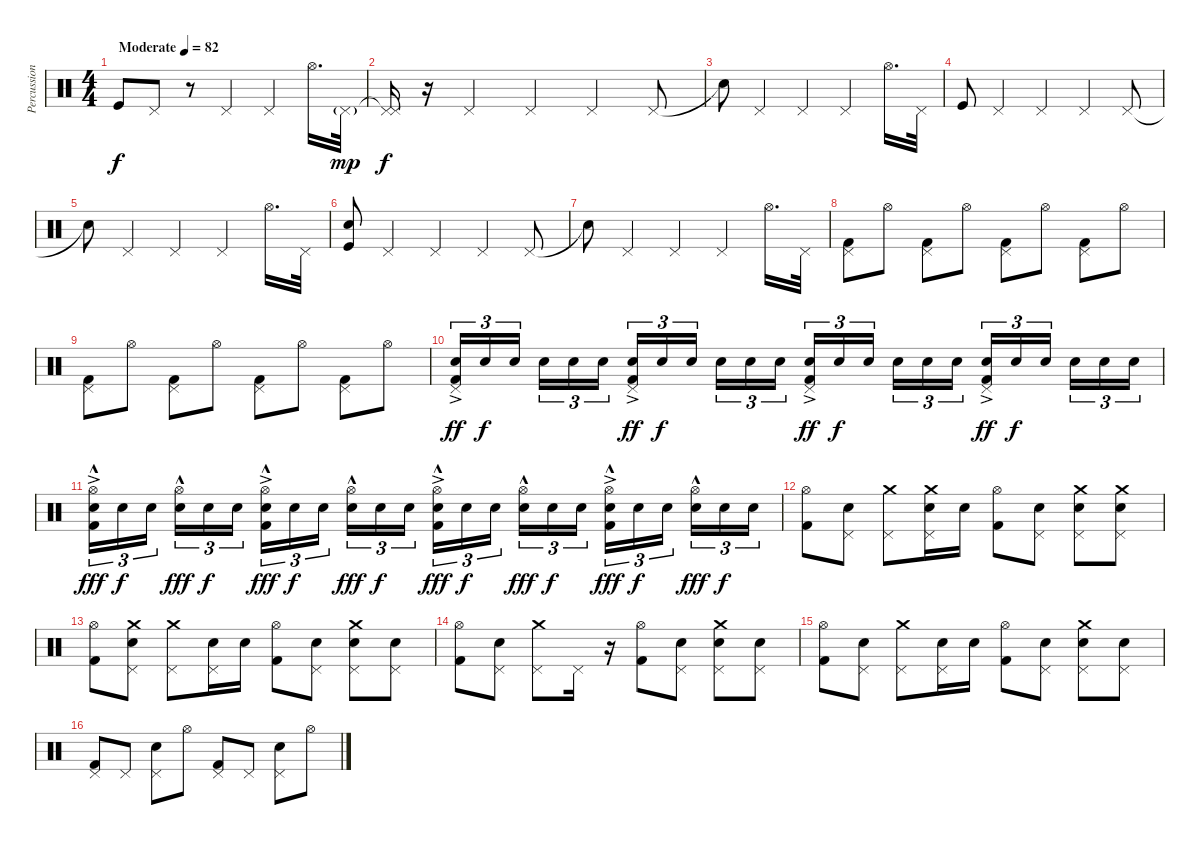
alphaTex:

\track ("Percussion" "Percussion") {instrument percussion}
\staff {score}
\articulation defaults
\ts (4 4)
\tempo (82 "Moderate")
\clef neutral
\ks c "Kick (hit)".8{dy f} "Pedal Hi-Hat (hit)".8
r.8 "Pedal Hi-Hat (hit)".4 "Pedal Hi-Hat (hit)".4 "Hi-Hat (open)".16{d} "Pedal Hi-Hat (hit)"{g}.32{dy mp} |
("Pedal Hi-Hat (hit)"{t} "Pedal Hi-Hat (hit)").16{dy f} r.16 "Pedal Hi-Hat (hit)".4 "Pedal Hi-Hat (hit)".4 "Pedal Hi-Hat (hit)".4 "Pedal Hi-Hat (hit)".8 |
"Snare (hit)"{t}.8 "Pedal Hi-Hat (hit)".4 "Pedal Hi-Hat (hit)".4 "Pedal Hi-Hat (hit)".4 "Hi-Hat (open)".16{d} "Pedal Hi-Hat (hit)".32 |
"Kick (hit)".8 "Pedal Hi-Hat (hit)".4 "Pedal Hi-Hat (hit)".4 "Pedal Hi-Hat (hit)".4 "Pedal Hi-Hat (hit)".8 |
"Snare (hit)"{t}.8 "Pedal Hi-Hat (hit)".4 "Pedal Hi-Hat (hit)".4 "Pedal Hi-Hat (hit)".4 "Hi-Hat (open)".16{d} "Pedal Hi-Hat (hit)".32 |
("Kick (hit)" "Snare (hit)").8 "Pedal Hi-Hat (hit)".4 "Pedal Hi-Hat (hit)".4 "Pedal Hi-Hat (hit)".4 "Pedal Hi-Hat (hit)".8 |
"Snare (hit)"{t}.8 "Pedal Hi-Hat (hit)".4 "Pedal Hi-Hat (hit)".4 "Pedal Hi-Hat (hit)".4 "Hi-Hat (open)".16{d} "Pedal Hi-Hat (hit)".32 |
("Kick (hit) 2" "Pedal Hi-Hat (hit)").8 "Hi-Hat (open)".8 ("Kick (hit) 2" "Pedal Hi-Hat (hit)").8 "Hi-Hat (open)".8 ("Kick (hit) 2" "Pedal Hi-Hat (hit)").8 "Hi-Hat (open)".8 ("Kick (hit) 2" "Pedal Hi-Hat (hit)").8 "Hi-Hat (open)".8 |
("Kick (hit) 2" "Pedal Hi-Hat (hit)").8 "Hi-Hat (open)".8 ("Kick (hit) 2" "Pedal Hi-Hat (hit)").8 "Hi-Hat (open)".8 ("Kick (hit) 2" "Pedal Hi-Hat (hit)").8 "Hi-Hat (open)".8 ("Kick (hit) 2" "Pedal Hi-Hat (hit)").8 "Hi-Hat (open)".8 |
("Snare (hit) 2"{ac} "Kick (hit) 2" "Pedal Hi-Hat (hit)").16{tu (3 2) dy ff} "Snare (hit) 2".16{tu (3 2) dy f} "Snare (hit) 2".16{tu (3 2) beam splitsecondary} "Snare (hit) 2".16{tu (3 2)} "Snare (hit) 2".16{tu (3 2)} "Snare (hit) 2".16{tu (3 2)} ("Snare (hit) 2"{ac} "Kick (hit) 2" "Pedal Hi-Hat (hit)").16{tu (3 2) dy ff} "Snare (hit) 2".16{tu (3 2) dy f} "Snare (hit) 2".16{tu (3 2) beam splitsecondary} "Snare (hit) 2".16{tu (3 2)} "Snare (hit) 2".16{tu (3 2)} "Snare (hit) 2".16{tu (3 2)} ("Snare (hit) 2"{ac} "Kick (hit) 2" "Pedal Hi-Hat (hit)").16{tu (3 2) dy ff} "Snare (hit) 2".16{tu (3 2) dy f} "Snare (hit) 2".16{tu (3 2) beam splitsecondary} "Snare (hit) 2".16{tu (3 2)} "Snare (hit) 2".16{tu (3 2)} "Snare (hit) 2".16{tu (3 2)} ("Snare (hit) 2"{ac} "Kick (hit) 2" "Pedal Hi-Hat (hit)").16{tu (3 2) dy ff} "Snare (hit) 2".16{tu (3 2) dy f} "Snare (hit) 2".16{tu (3 2) beam splitsecondary} "Snare (hit) 2".16{tu (3 2)} "Snare (hit) 2".16{tu (3 2)} "Snare (hit) 2".16{tu (3 2)} |
("Snare (hit) 2"{ac} "Kick (hit) 2" "Hi-Hat (open)"{hac}).16{tu (3 2) dy fff} "Snare (hit) 2".16{tu (3 2) dy f} "Snare (hit) 2".16{tu (3 2) beam splitsecondary} ("Snare (hit) 2" "Hi-Hat (open)"{hac}).16{tu (3 2) dy fff} "Snare (hit) 2".16{tu (3 2) dy f} "Snare (hit) 2".16{tu (3 2)} ("Snare (hit) 2"{ac} "Kick (hit) 2" "Hi-Hat (open)"{hac}).16{tu (3 2) dy fff} "Snare (hit) 2".16{tu (3 2) dy f} "Snare (hit) 2".16{tu (3 2) beam splitsecondary} ("Snare (hit) 2" "Hi-Hat (open)"{hac}).16{tu (3 2) dy fff} "Snare (hit) 2".16{tu (3 2) dy f} "Snare (hit) 2".16{tu (3 2)} ("Snare (hit) 2"{ac} "Kick (hit) 2" "Hi-Hat (open)"{hac}).16{tu (3 2) dy fff} "Snare (hit) 2".16{tu (3 2) dy f} "Snare (hit) 2".16{tu (3 2) beam splitsecondary} ("Snare (hit) 2" "Hi-Hat (open)"{hac}).16{tu (3 2) dy fff} "Snare (hit) 2".16{tu (3 2) dy f} "Snare (hit) 2".16{tu (3 2)} ("Snare (hit) 2"{ac} "Kick (hit) 2" "Hi-Hat (open)"{hac}).16{tu (3 2) dy fff} "Snare (hit) 2".16{tu (3 2) dy f} "Snare (hit) 2".16{tu (3 2) beam splitsecondary} ("Snare (hit) 2" "Hi-Hat (open)"{hac}).16{tu (3 2) dy fff} "Snare (hit) 2".16{tu (3 2) dy f} "Snare (hit) 2".16{tu (3 2)} |
("Kick (hit) 2" "Hi-Hat (open)").8 ("Pedal Hi-Hat (hit)" "Snare (hit) 2").8 ("Crash medium (hit)" "Pedal Hi-Hat (hit)").8 ("Crash medium (hit)" "Pedal Hi-Hat (hit)" "Snare (hit) 2").16 "Snare (hit) 2".16 ("Kick (hit) 2" "Hi-Hat (open)").8 ("Pedal Hi-Hat (hit)" "Snare (hit) 2").8 ("Crash medium (hit)" "Pedal Hi-Hat (hit)" "Snare (hit) 2").8 ("Crash medium (hit)" "Pedal Hi-Hat (hit)" "Snare (hit) 2").8 |
("Kick (hit) 2" "Hi-Hat (open)").8 ("Crash medium (hit)" "Pedal Hi-Hat (hit)" "Snare (hit) 2").8 ("Crash medium (hit)" "Pedal Hi-Hat (hit)").8 ("Pedal Hi-Hat (hit)" "Snare (hit) 2").16 "Snare (hit) 2".16 ("Kick (hit) 2" "Hi-Hat (open)").8 ("Pedal Hi-Hat (hit)" "Snare (hit) 2").8 ("Crash medium (hit)" "Pedal Hi-Hat (hit)" "Snare (hit) 2").8 ("Pedal Hi-Hat (hit)" "Snare (hit) 2").8 |
("Kick (hit) 2" "Hi-Hat (open)").8 ("Pedal Hi-Hat (hit)" "Snare (hit) 2").8 ("Crash medium (hit)" "Pedal Hi-Hat (hit)").8 "Pedal Hi-Hat (hit)".16 r.16 ("Kick (hit) 2" "Hi-Hat (open)").8 ("Pedal Hi-Hat (hit)" "Snare (hit) 2").8 ("Crash medium (hit)" "Pedal Hi-Hat (hit)" "Snare (hit) 2").8 ("Pedal Hi-Hat (hit)" "Snare (hit) 2").8 |
("Kick (hit) 2" "Hi-Hat (open)").8 ("Pedal Hi-Hat (hit)" "Snare (hit) 2").8 ("Crash medium (hit)" "Pedal Hi-Hat (hit)").8 ("Pedal Hi-Hat (hit)" "Snare (hit) 2").16 "Snare (hit) 2".16 ("Kick (hit) 2" "Hi-Hat (open)").8 ("Pedal Hi-Hat (hit)" "Snare (hit) 2").8 ("Crash medium (hit)" "Pedal Hi-Hat (hit)" "Snare (hit) 2").8 ("Pedal Hi-Hat (hit)" "Snare (hit) 2").8 |
("Kick (hit) 2" "Pedal Hi-Hat (hit)").8 "Pedal Hi-Hat (hit)".8 ("Pedal Hi-Hat (hit)" "Snare (hit) 2").8 "Hi-Hat (open)".8 ("Kick (hit) 2" "Pedal Hi-Hat (hit)").8 "Pedal Hi-Hat (hit)".8 ("Pedal Hi-Hat (hit)" "Snare (hit) 2").8 "Hi-Hat (open)".8
